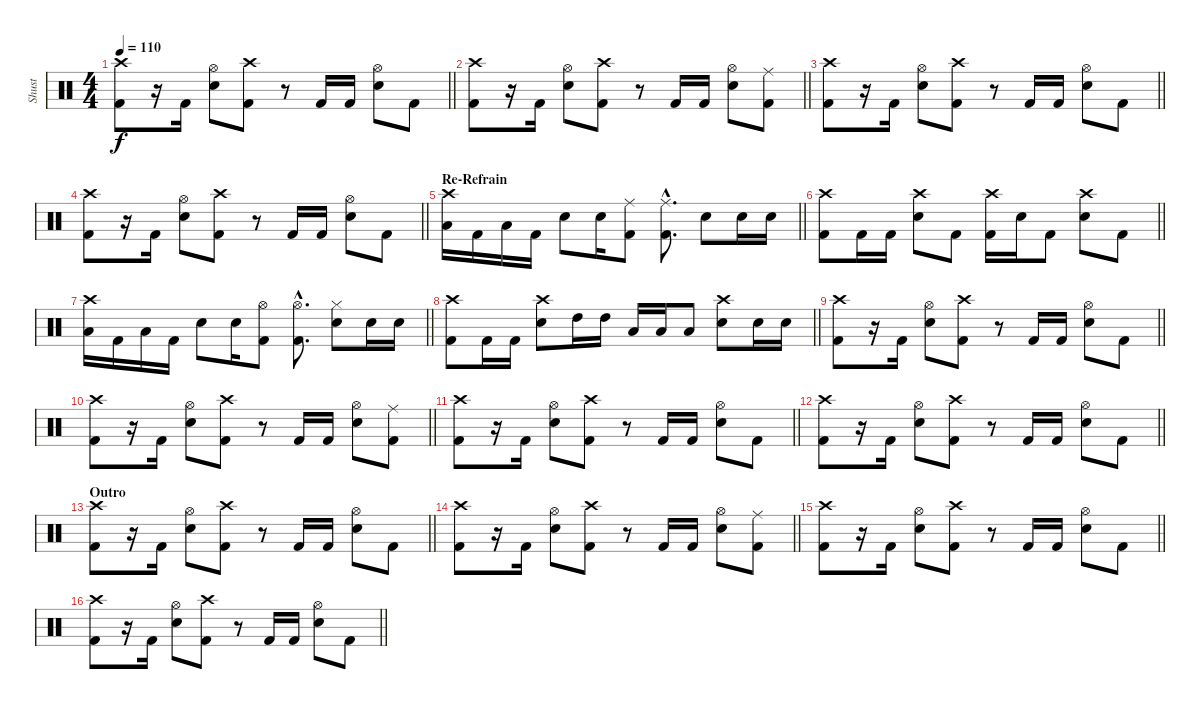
\track ("Shust" "Shust") {instrument percussion}
\staff {score}
\articulation defaults
\ts (4 4)
\tempo 110
\clef neutral
\barLineRight lightlight
\ks c
("Crash high (hit)" "Kick (hit) 2").8{dy f} r.16 "Kick (hit) 2".16 ("Hi-Hat (open)" "Electric Snare (hit)").8 ("Crash high (hit)" "Kick (hit) 2").8 r.8 "Kick (hit) 2".16 "Kick (hit) 2".16 ("Hi-Hat (open)" "Electric Snare (hit)").8 "Kick (hit) 2".8 |
\barLineRight lightlight
("Crash high (hit)" "Kick (hit) 2").8 r.16 "Kick (hit) 2".16 ("Hi-Hat (open)" "Electric Snare (hit)").8 ("Crash high (hit)" "Kick (hit) 2").8 r.8 "Kick (hit) 2".16 "Kick (hit) 2".16 ("Hi-Hat (open)" "Electric Snare (hit)").8 ("Ride (middle)" "Kick (hit) 2").8 |
\barLineRight lightlight
("Crash high (hit)" "Kick (hit) 2").8 r.16 "Kick (hit) 2".16 ("Hi-Hat (open)" "Electric Snare (hit)").8 ("Crash high (hit)" "Kick (hit) 2").8 r.8 "Kick (hit) 2".16 "Kick (hit) 2".16 ("Hi-Hat (open)" "Electric Snare (hit)").8 "Kick (hit) 2".8 |
\barLineRight lightlight
("Crash high (hit)" "Kick (hit) 2").8 r.16 "Kick (hit) 2".16 ("Hi-Hat (open)" "Electric Snare (hit)").8 ("Crash high (hit)" "Kick (hit) 2").8 r.8 "Kick (hit) 2".16 "Kick (hit) 2".16 ("Hi-Hat (open)" "Electric Snare (hit)").8 "Kick (hit) 2".8 |
\section ("" "Re-Refrain")
\barLineRight lightlight
("Crash high (hit)" "Low Tom (hit)").16 "Kick (hit) 2".16 "Low Tom (hit)".16 "Kick (hit) 2".16 "Electric Snare (hit)".8 "Electric Snare (hit)".16 ("Ride (middle)" "Kick (hit) 2").8 ("Ride (middle)"{hac} "Kick (hit) 2"{hac}).8{d} "Electric Snare (hit)".8 "Electric Snare (hit)".16 "Electric Snare (hit)".16 |
\barLineRight lightlight
("Crash high (hit)" "Kick (hit) 2").8 "Kick (hit) 2".16 "Kick (hit) 2".16 ("Crash high (hit)" "Electric Snare (hit)").8 "Kick (hit) 2".8 ("Crash high (hit)" "Kick (hit) 2").16 "Electric Snare (hit)".16 "Kick (hit) 2".8 ("Crash high (hit)" "Electric Snare (hit)").8 "Kick (hit) 2".8 |
\barLineRight lightlight
("Crash high (hit)" "Low Tom (hit)").16 "Kick (hit) 2".16 "Low Tom (hit)".16 "Kick (hit) 2".16 "Electric Snare (hit)".8 "Electric Snare (hit)".16 ("Hi-Hat (open)" "Kick (hit) 2").8 ("Hi-Hat (open)"{hac} "Kick (hit) 2"{hac}).8{d} ("Hi-Hat (closed)" "Electric Snare (hit)").8 "Electric Snare (hit)".16 "Electric Snare (hit)".16 |
\barLineRight lightlight
("Crash high (hit)" "Kick (hit) 2").8 "Kick (hit) 2".16 "Kick (hit) 2".16 ("Crash high (hit)" "Electric Snare (hit)").8 "High Tom (hit)".16 "High Tom (hit)".16 "Low Tom (hit)".16 "Low Tom (hit)".16 "Low Tom (hit)".8 ("Crash high (hit)" "Electric Snare (hit)").8 "Electric Snare (hit)".16 "Electric Snare (hit)".16 |
\barLineRight lightlight
("Crash high (hit)" "Kick (hit) 2").8 r.16 "Kick (hit) 2".16 ("Hi-Hat (open)" "Electric Snare (hit)").8 ("Crash high (hit)" "Kick (hit) 2").8 r.8 "Kick (hit) 2".16 "Kick (hit) 2".16 ("Hi-Hat (open)" "Electric Snare (hit)").8 "Kick (hit) 2".8 |
\barLineRight lightlight
("Crash high (hit)" "Kick (hit) 2").8 r.16 "Kick (hit) 2".16 ("Hi-Hat (open)" "Electric Snare (hit)").8 ("Crash high (hit)" "Kick (hit) 2").8 r.8 "Kick (hit) 2".16 "Kick (hit) 2".16 ("Hi-Hat (open)" "Electric Snare (hit)").8 ("Ride (middle)" "Kick (hit) 2").8 |
\barLineRight lightlight
("Crash high (hit)" "Kick (hit) 2").8 r.16 "Kick (hit) 2".16 ("Hi-Hat (open)" "Electric Snare (hit)").8 ("Crash high (hit)" "Kick (hit) 2").8 r.8 "Kick (hit) 2".16 "Kick (hit) 2".16 ("Hi-Hat (open)" "Electric Snare (hit)").8 "Kick (hit) 2".8 |
\barLineRight lightlight
("Crash high (hit)" "Kick (hit) 2").8 r.16 "Kick (hit) 2".16 ("Hi-Hat (open)" "Electric Snare (hit)").8 ("Crash high (hit)" "Kick (hit) 2").8 r.8 "Kick (hit) 2".16 "Kick (hit) 2".16 ("Hi-Hat (open)" "Electric Snare (hit)").8 "Kick (hit) 2".8 |
\section ("" "Outro")
\barLineRight lightlight
("Crash high (hit)" "Kick (hit) 2").8 r.16 "Kick (hit) 2".16 ("Hi-Hat (open)" "Electric Snare (hit)").8 ("Crash high (hit)" "Kick (hit) 2").8 r.8 "Kick (hit) 2".16 "Kick (hit) 2".16 ("Hi-Hat (open)" "Electric Snare (hit)").8 "Kick (hit) 2".8 |
\barLineRight lightlight
("Crash high (hit)" "Kick (hit) 2").8 r.16 "Kick (hit) 2".16 ("Hi-Hat (open)" "Electric Snare (hit)").8 ("Crash high (hit)" "Kick (hit) 2").8 r.8 "Kick (hit) 2".16 "Kick (hit) 2".16 ("Hi-Hat (open)" "Electric Snare (hit)").8 ("Ride (middle)" "Kick (hit) 2").8 |
\barLineRight lightlight
("Crash high (hit)" "Kick (hit) 2").8 r.16 "Kick (hit) 2".16 ("Hi-Hat (open)" "Electric Snare (hit)").8 ("Crash high (hit)" "Kick (hit) 2").8 r.8 "Kick (hit) 2".16 "Kick (hit) 2".16 ("Hi-Hat (open)" "Electric Snare (hit)").8 "Kick (hit) 2".8 |
\barLineRight lightlight
("Crash high (hit)" "Kick (hit) 2").8 r.16 "Kick (hit) 2".16 ("Hi-Hat (open)" "Electric Snare (hit)").8 ("Crash high (hit)" "Kick (hit) 2").8 r.8 "Kick (hit) 2".16 "Kick (hit) 2".16 ("Hi-Hat (open)" "Electric Snare (hit)").8 "Kick (hit) 2".8
